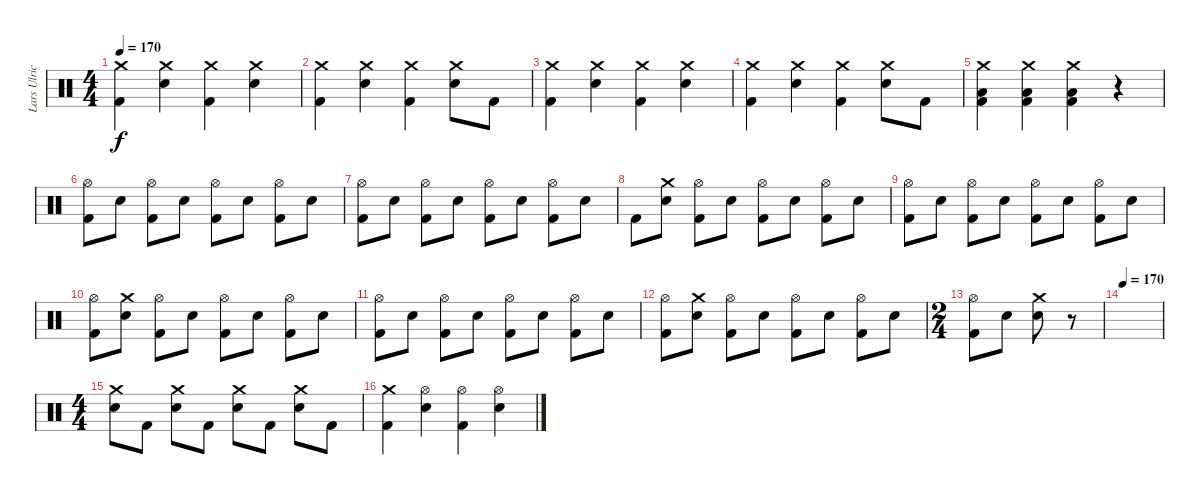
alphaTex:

\track ("Lars Ulrich" "Lars Ulric") {instrument percussion}
\staff {score}
\articulation defaults
\ts (4 4)
\tempo 170
\clef neutral
\ks c
("Crash medium (hit)" "Kick (hit) 2").4{dy f} ("Crash medium (hit)" "Electric Snare (hit)").4 ("Crash medium (hit)" "Kick (hit) 2").4 ("Crash medium (hit)" "Electric Snare (hit)").4 |
("Crash medium (hit)" "Kick (hit) 2").4 ("Crash medium (hit)" "Electric Snare (hit)").4 ("Crash medium (hit)" "Kick (hit) 2").4 ("Crash medium (hit)" "Electric Snare (hit)").8 "Kick (hit) 2".8 |
("Crash medium (hit)" "Kick (hit) 2").4 ("Crash medium (hit)" "Electric Snare (hit)").4 ("Crash medium (hit)" "Kick (hit) 2").4 ("Crash medium (hit)" "Electric Snare (hit)").4 |
("Crash medium (hit)" "Kick (hit) 2").4 ("Crash medium (hit)" "Electric Snare (hit)").4 ("Crash medium (hit)" "Kick (hit) 2").4 ("Crash medium (hit)" "Electric Snare (hit)").8 "Kick (hit) 2".8 |
("Crash medium (hit)" "Low Floor Tom (hit)" "Kick (hit) 2").4 ("Crash medium (hit)" "Low Floor Tom (hit)" "Kick (hit) 2").4 ("Crash medium (hit)" "Low Floor Tom (hit)" "Kick (hit) 2").4 r.4 |
("Hi-Hat (open)" "Kick (hit) 2").8 "Electric Snare (hit)".8 ("Hi-Hat (open)" "Kick (hit) 2").8 "Electric Snare (hit)".8 ("Hi-Hat (open)" "Kick (hit) 2").8 "Electric Snare (hit)".8 ("Hi-Hat (open)" "Kick (hit) 2").8 "Electric Snare (hit)".8 |
("Hi-Hat (open)" "Kick (hit) 2").8 "Electric Snare (hit)".8 ("Hi-Hat (open)" "Kick (hit) 2").8 "Electric Snare (hit)".8 ("Hi-Hat (open)" "Kick (hit) 2").8 "Electric Snare (hit)".8 ("Hi-Hat (open)" "Kick (hit) 2").8 "Electric Snare (hit)".8 |
"Kick (hit) 2".8 ("Crash medium (hit)" "Electric Snare (hit)").8 ("Hi-Hat (open)" "Kick (hit) 2").8 "Electric Snare (hit)".8 ("Hi-Hat (open)" "Kick (hit) 2").8 "Electric Snare (hit)".8 ("Hi-Hat (open)" "Kick (hit) 2").8 "Electric Snare (hit)".8 |
("Hi-Hat (open)" "Kick (hit) 2").8 "Electric Snare (hit)".8 ("Hi-Hat (open)" "Kick (hit) 2").8 "Electric Snare (hit)".8 ("Hi-Hat (open)" "Kick (hit) 2").8 "Electric Snare (hit)".8 ("Hi-Hat (open)" "Kick (hit) 2").8 "Electric Snare (hit)".8 |
("Hi-Hat (open)" "Kick (hit) 2").8 ("Crash medium (hit)" "Electric Snare (hit)").8 ("Hi-Hat (open)" "Kick (hit) 2").8 "Electric Snare (hit)".8 ("Hi-Hat (open)" "Kick (hit) 2").8 "Electric Snare (hit)".8 ("Hi-Hat (open)" "Kick (hit) 2").8 "Electric Snare (hit)".8 |
("Hi-Hat (open)" "Kick (hit) 2").8 "Electric Snare (hit)".8 ("Hi-Hat (open)" "Kick (hit) 2").8 "Electric Snare (hit)".8 ("Hi-Hat (open)" "Kick (hit) 2").8 "Electric Snare (hit)".8 ("Hi-Hat (open)" "Kick (hit) 2").8 "Electric Snare (hit)".8 |
("Hi-Hat (open)" "Kick (hit) 2").8 ("Crash medium (hit)" "Electric Snare (hit)").8 ("Hi-Hat (open)" "Kick (hit) 2").8 "Electric Snare (hit)".8 ("Hi-Hat (open)" "Kick (hit) 2").8 "Electric Snare (hit)".8 ("Hi-Hat (open)" "Kick (hit) 2").8 "Electric Snare (hit)".8 |
\ts (2 4)
("Hi-Hat (open)" "Kick (hit) 2").8 "Electric Snare (hit)".8 ("Crash medium (hit)" "Electric Snare (hit)").8 r.8 |
\tempo 170
|
\ts (4 4)
("Crash medium (hit)" "Electric Snare (hit)").8 "Kick (hit) 2".8 ("Crash medium (hit)" "Electric Snare (hit)").8 "Kick (hit) 2".8 ("Crash medium (hit)" "Electric Snare (hit)").8 "Kick (hit) 2".8 ("Crash medium (hit)" "Electric Snare (hit)").8 "Kick (hit) 2".8 |
("Crash medium (hit)" "Kick (hit) 2").4 ("Hi-Hat (open)" "Electric Snare (hit)").4 ("Hi-Hat (open)" "Kick (hit) 2").4 ("Hi-Hat (open)" "Electric Snare (hit)").4
